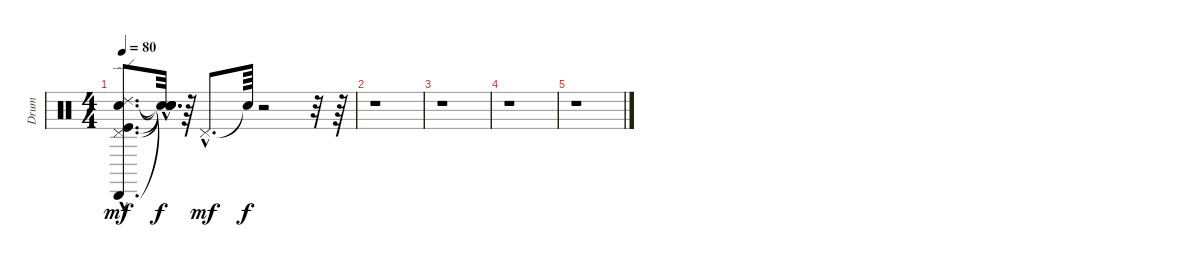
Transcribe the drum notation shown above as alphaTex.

\track ("Drum" "Drum") {instrument percussion}
\staff {score}
\articulation defaults
\ts (4 4)
\tempo 80
\clef neutral
\ks c
("Snare (hit) 2"{hac} "Kick (hit)"{hac} "Ride (edge) 2"{hac} "Cabasa (hit)"{hac} "Pedal Hi-Hat (hit)"{hac}).8{d dy mf} ("Snare (hit)"{hac t} "Snare (hit)"{hac t} "Snare (hit)"{hac t} "Snare (hit)"{hac t} "Snare (hit)"{hac t}).32{d dy f} r.64 "Pedal Hi-Hat (hit)"{hac}.8{d dy mf} "Snare (hit)"{t}.64{dy f} r.2 r.32 r.64 |
r.1 |
r.1 |
r.1 |
r.1
